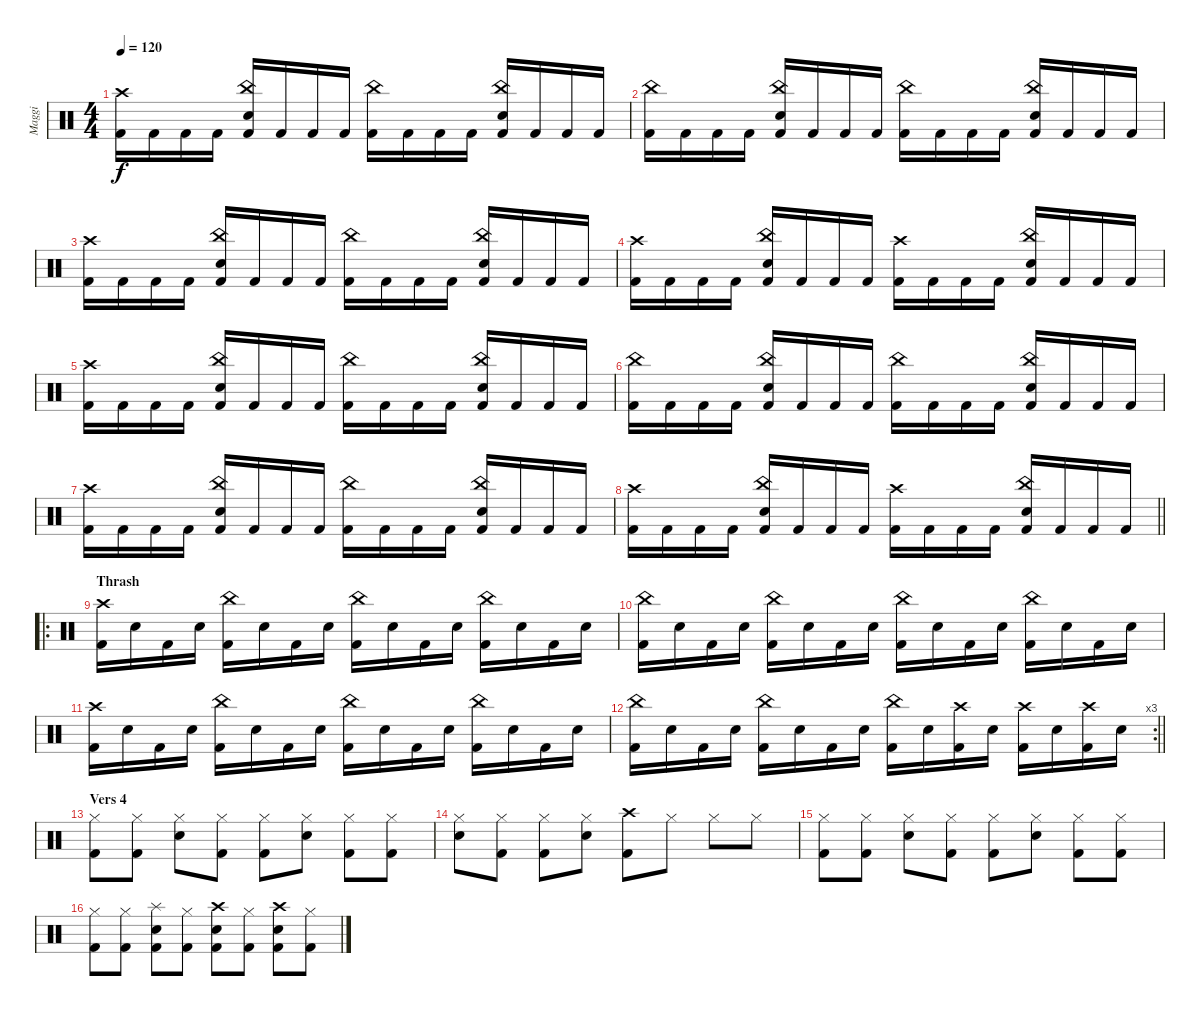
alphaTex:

\track ("Maggi" "Maggi") {instrument percussion}
\staff {score}
\articulation defaults
\ts (4 4)
\tempo 120
\clef neutral
\ks c
("Crash high (hit)" "Kick (hit) 2").16{dy f} "Kick (hit) 2".16 "Kick (hit) 2".16 "Kick (hit) 2".16 ("China (hit)" "Snare (hit) 2" "Kick (hit) 2").16 "Kick (hit) 2".16 "Kick (hit) 2".16 "Kick (hit) 2".16 ("China (hit)" "Kick (hit) 2").16 "Kick (hit) 2".16 "Kick (hit) 2".16 "Kick (hit) 2".16 ("China (hit)" "Snare (hit) 2" "Kick (hit) 2").16 "Kick (hit) 2".16 "Kick (hit) 2".16 "Kick (hit) 2".16 |
("China (hit)" "Kick (hit) 2").16 "Kick (hit) 2".16 "Kick (hit) 2".16 "Kick (hit) 2".16 ("China (hit)" "Snare (hit) 2" "Kick (hit) 2").16 "Kick (hit) 2".16 "Kick (hit) 2".16 "Kick (hit) 2".16 ("China (hit)" "Kick (hit) 2").16 "Kick (hit) 2".16 "Kick (hit) 2".16 "Kick (hit) 2".16 ("China (hit)" "Snare (hit) 2" "Kick (hit) 2").16 "Kick (hit) 2".16 "Kick (hit) 2".16 "Kick (hit) 2".16 |
("Crash high (hit)" "Kick (hit) 2").16 "Kick (hit) 2".16 "Kick (hit) 2".16 "Kick (hit) 2".16 ("China (hit)" "Snare (hit) 2" "Kick (hit) 2").16 "Kick (hit) 2".16 "Kick (hit) 2".16 "Kick (hit) 2".16 ("China (hit)" "Kick (hit) 2").16 "Kick (hit) 2".16 "Kick (hit) 2".16 "Kick (hit) 2".16 ("China (hit)" "Snare (hit) 2" "Kick (hit) 2").16 "Kick (hit) 2".16 "Kick (hit) 2".16 "Kick (hit) 2".16 |
("Crash high (hit)" "Kick (hit) 2").16 "Kick (hit) 2".16 "Kick (hit) 2".16 "Kick (hit) 2".16 ("China (hit)" "Snare (hit) 2" "Kick (hit) 2").16 "Kick (hit) 2".16 "Kick (hit) 2".16 "Kick (hit) 2".16 ("Crash high (hit)" "Kick (hit) 2").16 "Kick (hit) 2".16 "Kick (hit) 2".16 "Kick (hit) 2".16 ("China (hit)" "Snare (hit) 2" "Kick (hit) 2").16 "Kick (hit) 2".16 "Kick (hit) 2".16 "Kick (hit) 2".16 |
("Crash high (hit)" "Kick (hit) 2").16 "Kick (hit) 2".16 "Kick (hit) 2".16 "Kick (hit) 2".16 ("China (hit)" "Snare (hit) 2" "Kick (hit) 2").16 "Kick (hit) 2".16 "Kick (hit) 2".16 "Kick (hit) 2".16 ("China (hit)" "Kick (hit) 2").16 "Kick (hit) 2".16 "Kick (hit) 2".16 "Kick (hit) 2".16 ("China (hit)" "Snare (hit) 2" "Kick (hit) 2").16 "Kick (hit) 2".16 "Kick (hit) 2".16 "Kick (hit) 2".16 |
("China (hit)" "Kick (hit) 2").16 "Kick (hit) 2".16 "Kick (hit) 2".16 "Kick (hit) 2".16 ("China (hit)" "Snare (hit) 2" "Kick (hit) 2").16 "Kick (hit) 2".16 "Kick (hit) 2".16 "Kick (hit) 2".16 ("China (hit)" "Kick (hit) 2").16 "Kick (hit) 2".16 "Kick (hit) 2".16 "Kick (hit) 2".16 ("China (hit)" "Snare (hit) 2" "Kick (hit) 2").16 "Kick (hit) 2".16 "Kick (hit) 2".16 "Kick (hit) 2".16 |
("Crash high (hit)" "Kick (hit) 2").16 "Kick (hit) 2".16 "Kick (hit) 2".16 "Kick (hit) 2".16 ("China (hit)" "Snare (hit) 2" "Kick (hit) 2").16 "Kick (hit) 2".16 "Kick (hit) 2".16 "Kick (hit) 2".16 ("China (hit)" "Kick (hit) 2").16 "Kick (hit) 2".16 "Kick (hit) 2".16 "Kick (hit) 2".16 ("China (hit)" "Snare (hit) 2" "Kick (hit) 2").16 "Kick (hit) 2".16 "Kick (hit) 2".16 "Kick (hit) 2".16 |
\barLineRight lightlight
("Crash high (hit)" "Kick (hit) 2").16 "Kick (hit) 2".16 "Kick (hit) 2".16 "Kick (hit) 2".16 ("China (hit)" "Snare (hit) 2" "Kick (hit) 2").16 "Kick (hit) 2".16 "Kick (hit) 2".16 "Kick (hit) 2".16 ("Crash high (hit)" "Kick (hit) 2").16 "Kick (hit) 2".16 "Kick (hit) 2".16 "Kick (hit) 2".16 ("China (hit)" "Snare (hit) 2" "Kick (hit) 2").16 "Kick (hit) 2".16 "Kick (hit) 2".16 "Kick (hit) 2".16 |
\ro
\section ("" "Thrash")
("Crash high (hit)" "Kick (hit) 2").16 "Snare (hit) 2".16 "Kick (hit) 2".16 "Snare (hit) 2".16 ("China (hit)" "Kick (hit) 2").16 "Snare (hit) 2".16 "Kick (hit) 2".16 "Snare (hit) 2".16 ("China (hit)" "Kick (hit) 2").16 "Snare (hit) 2".16 "Kick (hit) 2".16 "Snare (hit) 2".16 ("China (hit)" "Kick (hit) 2").16 "Snare (hit) 2".16 "Kick (hit) 2".16 "Snare (hit) 2".16 |
("China (hit)" "Kick (hit) 2").16 "Snare (hit) 2".16 "Kick (hit) 2".16 "Snare (hit) 2".16 ("China (hit)" "Kick (hit) 2").16 "Snare (hit) 2".16 "Kick (hit) 2".16 "Snare (hit) 2".16 ("China (hit)" "Kick (hit) 2").16 "Snare (hit) 2".16 "Kick (hit) 2".16 "Snare (hit) 2".16 ("China (hit)" "Kick (hit) 2").16 "Snare (hit) 2".16 "Kick (hit) 2".16 "Snare (hit) 2".16 |
("Crash high (hit)" "Kick (hit) 2").16 "Snare (hit) 2".16 "Kick (hit) 2".16 "Snare (hit) 2".16 ("China (hit)" "Kick (hit) 2").16 "Snare (hit) 2".16 "Kick (hit) 2".16 "Snare (hit) 2".16 ("China (hit)" "Kick (hit) 2").16 "Snare (hit) 2".16 "Kick (hit) 2".16 "Snare (hit) 2".16 ("China (hit)" "Kick (hit) 2").16 "Snare (hit) 2".16 "Kick (hit) 2".16 "Snare (hit) 2".16 |
\rc 3
\barLineRight lightlight
("China (hit)" "Kick (hit) 2").16 "Snare (hit) 2".16 "Kick (hit) 2".16 "Snare (hit) 2".16 ("China (hit)" "Kick (hit) 2").16 "Snare (hit) 2".16 "Kick (hit) 2".16 "Snare (hit) 2".16 ("China (hit)" "Kick (hit) 2").16 "Snare (hit) 2".16 ("Crash high (hit)" "Kick (hit) 2").16 "Snare (hit) 2".16 ("Crash high (hit)" "Kick (hit) 2").16 "Snare (hit) 2".16 ("Crash high (hit)" "Kick (hit) 2").16 "Snare (hit) 2".16 |
\section ("" "Vers 4")
("Hi-Hat (closed)" "Kick (hit) 2").8 ("Hi-Hat (closed)" "Kick (hit) 2").8 ("Hi-Hat (closed)" "Snare (hit) 2").8 ("Hi-Hat (closed)" "Kick (hit) 2").8 ("Hi-Hat (closed)" "Kick (hit) 2").8 ("Hi-Hat (closed)" "Snare (hit) 2").8 ("Hi-Hat (closed)" "Kick (hit) 2").8 ("Hi-Hat (closed)" "Kick (hit) 2").8 |
("Hi-Hat (closed)" "Snare (hit) 2").8 ("Hi-Hat (closed)" "Kick (hit) 2").8 ("Hi-Hat (closed)" "Kick (hit) 2").8 ("Hi-Hat (closed)" "Snare (hit) 2").8 ("Crash high (hit)" "Kick (hit) 2").8 "Hi-Hat (closed)".8 "Hi-Hat (closed)".8 "Hi-Hat (closed)".8 |
("Hi-Hat (closed)" "Kick (hit) 2").8 ("Hi-Hat (closed)" "Kick (hit) 2").8 ("Hi-Hat (closed)" "Snare (hit) 2").8 ("Hi-Hat (closed)" "Kick (hit) 2").8 ("Hi-Hat (closed)" "Kick (hit) 2").8 ("Hi-Hat (closed)" "Snare (hit) 2").8 ("Hi-Hat (closed)" "Kick (hit) 2").8 ("Hi-Hat (closed)" "Kick (hit) 2").8 |
("Hi-Hat (closed)" "Kick (hit) 2").8 ("Hi-Hat (closed)" "Kick (hit) 2").8 ("Splash (hit)" "Snare (hit) 2" "Kick (hit) 2").8 ("Hi-Hat (closed)" "Kick (hit) 2").8 ("Crash high (hit)" "Snare (hit) 2" "Kick (hit) 2").8 ("Hi-Hat (closed)" "Kick (hit) 2").8 ("Crash high (hit)" "Snare (hit) 2" "Kick (hit) 2").8 ("Hi-Hat (closed)" "Kick (hit) 2").8
